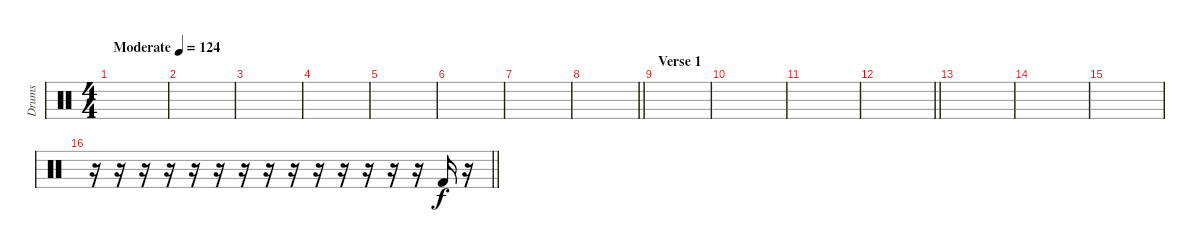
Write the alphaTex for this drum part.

\track ("Drums" "Drums") {instrument percussion}
\staff {score}
\articulation defaults
\ts (4 4)
\tempo (124 "Moderate")
\clef neutral
\ks c
|
|
|
|
|
|
|
\barLineRight lightlight
|
\section ("" "Verse 1")
|
|
|
\barLineRight lightlight
|
|
|
|
\barLineRight lightlight
r.16 r.16 r.16 r.16 r.16 r.16 r.16 r.16 r.16 r.16 r.16 r.16 r.16 r.16 "Kick (hit) 2".16 r.16
